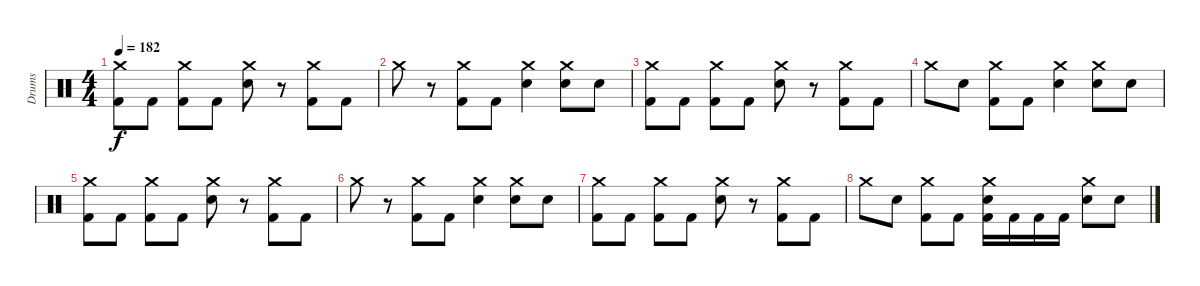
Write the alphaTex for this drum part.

\track ("Drums" "Drums") {instrument percussion}
\staff
\articulation defaults
\ts (4 4)
\tempo 182
\clef neutral
\ks c
("Crash medium (hit)" "Kick (hit) 2").8{dy f} "Kick (hit) 2".8 ("Crash medium (hit)" "Kick (hit) 2").8 "Kick (hit) 2".8 ("Crash medium (hit)" "Electric Snare (hit)").8 r.8 ("Crash medium (hit)" "Kick (hit) 2").8 "Kick (hit) 2".8 |
"Crash medium (hit)".8 r.8 ("Crash medium (hit)" "Kick (hit) 2").8 "Kick (hit) 2".8 ("Crash medium (hit)" "Electric Snare (hit)").4 ("Crash medium (hit)" "Electric Snare (hit)").8 "Electric Snare (hit)".8 |
("Crash medium (hit)" "Kick (hit) 2").8 "Kick (hit) 2".8 ("Crash medium (hit)" "Kick (hit) 2").8 "Kick (hit) 2".8 ("Crash medium (hit)" "Electric Snare (hit)").8 r.8 ("Crash medium (hit)" "Kick (hit) 2").8 "Kick (hit) 2".8 |
"Crash medium (hit)".8 "Electric Snare (hit)".8 ("Crash medium (hit)" "Kick (hit) 2").8 "Kick (hit) 2".8 ("Crash medium (hit)" "Electric Snare (hit)").4 ("Crash medium (hit)" "Electric Snare (hit)").8 "Electric Snare (hit)".8 |
("Crash medium (hit)" "Kick (hit) 2").8 "Kick (hit) 2".8 ("Crash medium (hit)" "Kick (hit) 2").8 "Kick (hit) 2".8 ("Crash medium (hit)" "Electric Snare (hit)").8 r.8 ("Crash medium (hit)" "Kick (hit) 2").8 "Kick (hit) 2".8 |
"Crash medium (hit)".8 r.8 ("Crash medium (hit)" "Kick (hit) 2").8 "Kick (hit) 2".8 ("Crash medium (hit)" "Electric Snare (hit)").4 ("Crash medium (hit)" "Electric Snare (hit)").8 "Electric Snare (hit)".8 |
("Crash medium (hit)" "Kick (hit) 2").8 "Kick (hit) 2".8 ("Crash medium (hit)" "Kick (hit) 2").8 "Kick (hit) 2".8 ("Crash medium (hit)" "Electric Snare (hit)").8 r.8 ("Crash medium (hit)" "Kick (hit) 2").8 "Kick (hit) 2".8 |
"Crash medium (hit)".8 "Electric Snare (hit)".8 ("Crash medium (hit)" "Kick (hit) 2").8 "Kick (hit) 2".8 ("Crash medium (hit)" "Electric Snare (hit)" "Kick (hit) 2").16 "Kick (hit) 2".16 "Kick (hit) 2".16 "Kick (hit) 2".16 ("Crash medium (hit)" "Electric Snare (hit)").8 "Electric Snare (hit)".8
